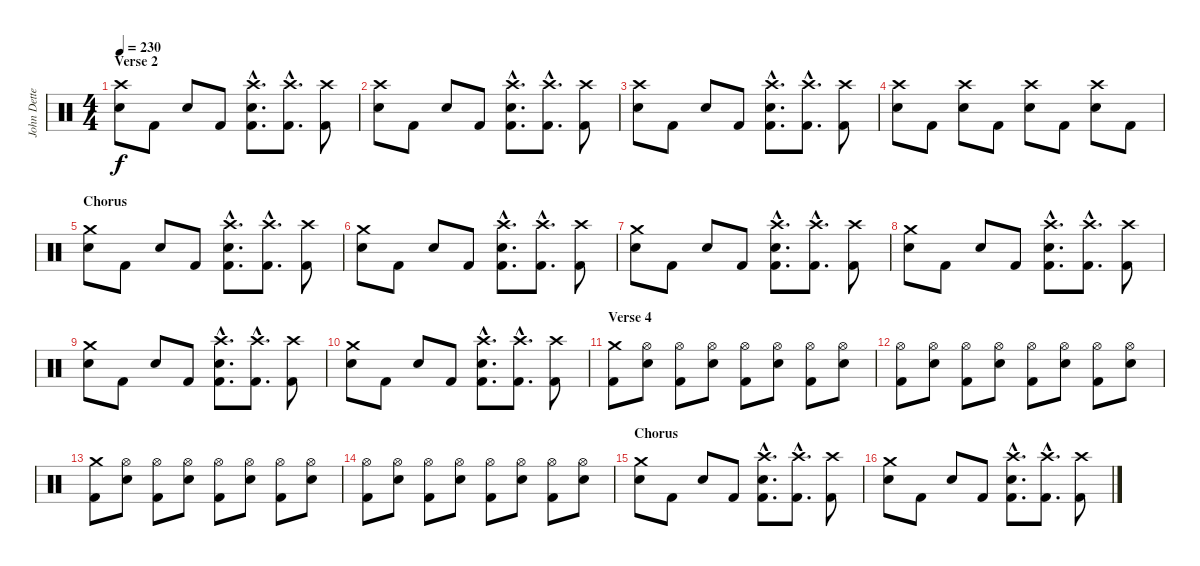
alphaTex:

\track ("John Dette" "John Dette") {instrument percussion}
\staff {score}
\articulation defaults
\ts (4 4)
\section ("" "Verse 2")
\tempo 230
\clef neutral
\ks c
("Crash high (hit)" "Snare (hit) 2").8{dy f} "Kick (hit) 2".8 "Snare (hit) 2".8 "Kick (hit) 2".8 ("Crash high (hit)"{hac} "Snare (hit) 2"{hac} "Kick (hit) 2"{hac}).8{d} ("Crash high (hit)"{hac} "Kick (hit) 2"{hac}).8{d} ("Crash high (hit)" "Kick (hit) 2").8 |
("Crash high (hit)" "Snare (hit) 2").8 "Kick (hit) 2".8 "Snare (hit) 2".8 "Kick (hit) 2".8 ("Crash high (hit)"{hac} "Snare (hit) 2"{hac} "Kick (hit) 2"{hac}).8{d} ("Crash high (hit)"{hac} "Kick (hit) 2"{hac}).8{d} ("Crash high (hit)" "Kick (hit) 2").8 |
("Crash high (hit)" "Snare (hit) 2").8 "Kick (hit) 2".8 "Snare (hit) 2".8 "Kick (hit) 2".8 ("Crash high (hit)"{hac} "Snare (hit) 2"{hac} "Kick (hit) 2"{hac}).8{d} ("Crash high (hit)"{hac} "Kick (hit) 2"{hac}).8{d} ("Crash high (hit)" "Kick (hit) 2").8 |
("Crash high (hit)" "Snare (hit) 2").8 "Kick (hit) 2".8 ("Crash high (hit)" "Snare (hit) 2").8 "Kick (hit) 2".8 ("Crash high (hit)" "Snare (hit) 2").8 "Kick (hit) 2".8 ("Crash high (hit)" "Snare (hit) 2").8 "Kick (hit) 2".8 |
\section ("" "Chorus")
("Crash medium (hit)" "Snare (hit) 2").8 "Kick (hit) 2".8 "Snare (hit) 2".8 "Kick (hit) 2".8 ("Crash high (hit)"{hac} "Snare (hit) 2"{hac} "Kick (hit) 2"{hac}).8{d} ("Crash high (hit)"{hac} "Kick (hit) 2"{hac}).8{d} ("Crash high (hit)" "Kick (hit) 2").8 |
("Crash medium (hit)" "Snare (hit) 2").8 "Kick (hit) 2".8 "Snare (hit) 2".8 "Kick (hit) 2".8 ("Crash high (hit)"{hac} "Snare (hit) 2"{hac} "Kick (hit) 2"{hac}).8{d} ("Crash high (hit)"{hac} "Kick (hit) 2"{hac}).8{d} ("Crash high (hit)" "Kick (hit) 2").8 |
("Crash medium (hit)" "Snare (hit) 2").8 "Kick (hit) 2".8 "Snare (hit) 2".8 "Kick (hit) 2".8 ("Crash high (hit)"{hac} "Snare (hit) 2"{hac} "Kick (hit) 2"{hac}).8{d} ("Crash high (hit)"{hac} "Kick (hit) 2"{hac}).8{d} ("Crash high (hit)" "Kick (hit) 2").8 |
("Crash medium (hit)" "Snare (hit) 2").8 "Kick (hit) 2".8 "Snare (hit) 2".8 "Kick (hit) 2".8 ("Crash high (hit)"{hac} "Snare (hit) 2"{hac} "Kick (hit) 2"{hac}).8{d} ("Crash high (hit)"{hac} "Kick (hit) 2"{hac}).8{d} ("Crash high (hit)" "Kick (hit) 2").8 |
("Crash medium (hit)" "Snare (hit) 2").8 "Kick (hit) 2".8 "Snare (hit) 2".8 "Kick (hit) 2".8 ("Crash high (hit)"{hac} "Snare (hit) 2"{hac} "Kick (hit) 2"{hac}).8{d} ("Crash high (hit)"{hac} "Kick (hit) 2"{hac}).8{d} ("Crash high (hit)" "Kick (hit) 2").8 |
("Crash medium (hit)" "Snare (hit) 2").8 "Kick (hit) 2".8 "Snare (hit) 2".8 "Kick (hit) 2".8 ("Crash high (hit)"{hac} "Snare (hit) 2"{hac} "Kick (hit) 2"{hac}).8{d} ("Crash high (hit)"{hac} "Kick (hit) 2"{hac}).8{d} ("Crash high (hit)" "Kick (hit) 2").8 |
\section ("" "Verse 4")
("Crash medium (hit)" "Kick (hit) 2").8 ("Hi-Hat (open)" "Snare (hit) 2").8 ("Hi-Hat (open)" "Kick (hit) 2").8 ("Hi-Hat (open)" "Snare (hit) 2").8 ("Hi-Hat (open)" "Kick (hit) 2").8 ("Hi-Hat (open)" "Snare (hit) 2").8 ("Hi-Hat (open)" "Kick (hit) 2").8 ("Hi-Hat (open)" "Snare (hit) 2").8 |
("Hi-Hat (open)" "Kick (hit) 2").8 ("Hi-Hat (open)" "Snare (hit) 2").8 ("Hi-Hat (open)" "Kick (hit) 2").8 ("Hi-Hat (open)" "Snare (hit) 2").8 ("Hi-Hat (open)" "Kick (hit) 2").8 ("Hi-Hat (open)" "Snare (hit) 2").8 ("Hi-Hat (open)" "Kick (hit) 2").8 ("Hi-Hat (open)" "Snare (hit) 2").8 |
("Crash medium (hit)" "Kick (hit) 2").8 ("Hi-Hat (open)" "Snare (hit) 2").8 ("Hi-Hat (open)" "Kick (hit) 2").8 ("Hi-Hat (open)" "Snare (hit) 2").8 ("Hi-Hat (open)" "Kick (hit) 2").8 ("Hi-Hat (open)" "Snare (hit) 2").8 ("Hi-Hat (open)" "Kick (hit) 2").8 ("Hi-Hat (open)" "Snare (hit) 2").8 |
("Hi-Hat (open)" "Kick (hit) 2").8 ("Hi-Hat (open)" "Snare (hit) 2").8 ("Hi-Hat (open)" "Kick (hit) 2").8 ("Hi-Hat (open)" "Snare (hit) 2").8 ("Hi-Hat (open)" "Kick (hit) 2").8 ("Hi-Hat (open)" "Snare (hit) 2").8 ("Hi-Hat (open)" "Kick (hit) 2").8 ("Hi-Hat (open)" "Snare (hit) 2").8 |
\section ("" "Chorus")
("Crash medium (hit)" "Snare (hit) 2").8 "Kick (hit) 2".8 "Snare (hit) 2".8 "Kick (hit) 2".8 ("Crash high (hit)"{hac} "Snare (hit) 2"{hac} "Kick (hit) 2"{hac}).8{d} ("Crash high (hit)"{hac} "Kick (hit) 2"{hac}).8{d} ("Crash high (hit)" "Kick (hit) 2").8 |
("Crash medium (hit)" "Snare (hit) 2").8 "Kick (hit) 2".8 "Snare (hit) 2".8 "Kick (hit) 2".8 ("Crash high (hit)"{hac} "Snare (hit) 2"{hac} "Kick (hit) 2"{hac}).8{d} ("Crash high (hit)"{hac} "Kick (hit) 2"{hac}).8{d} ("Crash high (hit)" "Kick (hit) 2").8
